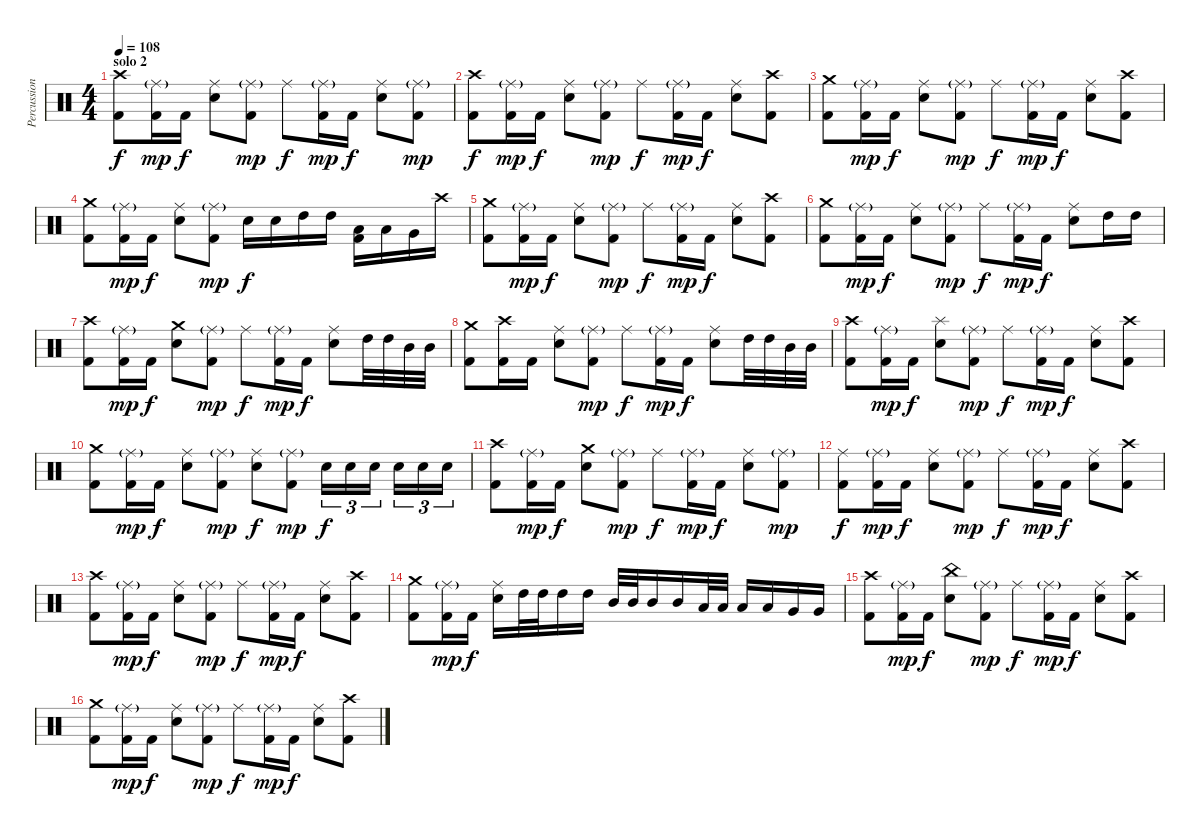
\track ("Percussion" "Percussion") {instrument percussion}
\staff {score}
\articulation defaults
\ts (4 4)
\section ("" "solo 2")
\tempo 108
\clef neutral
\ks c
("Crash high (hit)" "Kick (hit) 2").8{dy f} ("Ride (middle)"{g} "Kick (hit) 2").16{dy mp} "Kick (hit) 2".16{dy f} ("Ride (middle)" "Electric Snare (hit)").8 ("Ride (middle)"{g} "Kick (hit) 2").8{dy mp} "Ride (middle)".8{dy f} ("Ride (middle)"{g} "Kick (hit) 2").16{dy mp} "Kick (hit) 2".16{dy f} ("Ride (middle)" "Electric Snare (hit)").8 ("Ride (middle)"{g} "Kick (hit) 2").8{dy mp} |
("Crash high (hit)" "Kick (hit) 2").8{dy f} ("Ride (middle)"{g} "Kick (hit) 2").16{dy mp} "Kick (hit) 2".16{dy f} ("Ride (middle)" "Electric Snare (hit)").8 ("Ride (middle)"{g} "Kick (hit) 2").8{dy mp} "Ride (middle)".8{dy f} ("Ride (middle)"{g} "Kick (hit) 2").16{dy mp} "Kick (hit) 2".16{dy f} ("Ride (middle)" "Electric Snare (hit)").8 ("Crash high (hit)" "Kick (hit) 2").8 |
("Crash medium (hit)" "Kick (hit) 2").8 ("Ride (middle)"{g} "Kick (hit) 2").16{dy mp} "Kick (hit) 2".16{dy f} ("Ride (middle)" "Electric Snare (hit)").8 ("Ride (middle)"{g} "Kick (hit) 2").8{dy mp} "Ride (middle)".8{dy f} ("Ride (middle)"{g} "Kick (hit) 2").16{dy mp} "Kick (hit) 2".16{dy f} ("Ride (middle)" "Electric Snare (hit)").8 ("Crash high (hit)" "Kick (hit) 2").8 |
("Crash medium (hit)" "Kick (hit) 2").8 ("Ride (middle)"{g} "Kick (hit) 2").16{dy mp} "Kick (hit) 2".16{dy f} ("Ride (middle)" "Electric Snare (hit)").8 ("Ride (middle)"{g} "Kick (hit) 2").8{dy mp} "Electric Snare (hit)".16{dy f} "Electric Snare (hit)".16 "High Tom (hit)".16 "High Tom (hit)".16 ("Low Tom (hit)" "Kick (hit) 2").16 "Low Tom (hit)".16 "Very Low Tom (hit)".16 "Crash high (hit)".16 |
("Crash medium (hit)" "Kick (hit) 2").8 ("Ride (middle)"{g} "Kick (hit) 2").16{dy mp} "Kick (hit) 2".16{dy f} ("Ride (middle)" "Electric Snare (hit)").8 ("Ride (middle)"{g} "Kick (hit) 2").8{dy mp} "Ride (middle)".8{dy f} ("Ride (middle)"{g} "Kick (hit) 2").16{dy mp} "Kick (hit) 2".16{dy f} ("Ride (middle)" "Electric Snare (hit)").8 ("Crash high (hit)" "Kick (hit) 2").8 |
("Crash medium (hit)" "Kick (hit) 2").8 ("Ride (middle)"{g} "Kick (hit) 2").16{dy mp} "Kick (hit) 2".16{dy f} ("Ride (middle)" "Electric Snare (hit)").8 ("Ride (middle)"{g} "Kick (hit) 2").8{dy mp} "Ride (middle)".8{dy f} ("Ride (middle)"{g} "Kick (hit) 2").16{dy mp} "Kick (hit) 2".16{dy f} ("Ride (middle)" "Electric Snare (hit)").8 "High Tom (hit)".16 "High Tom (hit)".16 |
("Crash high (hit)" "Kick (hit) 2").8 ("Ride (middle)"{g} "Kick (hit) 2").16{dy mp} "Kick (hit) 2".16{dy f} ("Crash medium (hit)" "Electric Snare (hit)").8 ("Ride (middle)"{g} "Kick (hit) 2").8{dy mp} "Ride (middle)".8{dy f} ("Ride (middle)"{g} "Kick (hit) 2").16{dy mp} "Kick (hit) 2".16{dy f} ("Ride (middle)" "Electric Snare (hit)").8 "High Tom (hit)".32 "High Tom (hit)".32 "Mid Tom (hit)".32 "Mid Tom (hit)".32 |
("Crash medium (hit)" "Kick (hit) 2").8 ("Crash high (hit)" "Kick (hit) 2").16 "Kick (hit) 2".16 ("Ride (middle)" "Electric Snare (hit)").8 ("Ride (middle)"{g} "Kick (hit) 2").8{dy mp} "Ride (middle)".8{dy f} ("Ride (middle)"{g} "Kick (hit) 2").16{dy mp} "Kick (hit) 2".16{dy f} ("Ride (middle)" "Electric Snare (hit)").8 "High Tom (hit)".32 "High Tom (hit)".32 "Mid Tom (hit)".32 "Mid Tom (hit)".32 |
("Crash high (hit)" "Kick (hit) 2").8 ("Ride (middle)"{g} "Kick (hit) 2").16{dy mp} "Kick (hit) 2".16{dy f} ("Splash (hit)" "Electric Snare (hit)").8 ("Ride (middle)"{g} "Kick (hit) 2").8{dy mp} "Ride (middle)".8{dy f} ("Ride (middle)"{g} "Kick (hit) 2").16{dy mp} "Kick (hit) 2".16{dy f} ("Ride (middle)" "Electric Snare (hit)").8 ("Crash high (hit)" "Kick (hit) 2").8 |
("Crash medium (hit)" "Kick (hit) 2").8 ("Ride (middle)"{g} "Kick (hit) 2").16{dy mp} "Kick (hit) 2".16{dy f} ("Ride (middle)" "Electric Snare (hit)").8 ("Ride (middle)"{g} "Kick (hit) 2").8{dy mp} ("Ride (middle)" "Electric Snare (hit)").8{dy f} ("Ride (middle)"{g} "Kick (hit) 2").8{dy mp} "Electric Snare (hit)".16{tu (3 2) dy f} "Electric Snare (hit)".16{tu (3 2)} "Electric Snare (hit)".16{tu (3 2) beam splitsecondary} "Electric Snare (hit)".16{tu (3 2)} "Electric Snare (hit)".16{tu (3 2)} "Electric Snare (hit)".16{tu (3 2)} |
("Crash high (hit)" "Kick (hit) 2").8 ("Ride (middle)"{g} "Kick (hit) 2").16{dy mp} "Kick (hit) 2".16{dy f} ("Crash medium (hit)" "Electric Snare (hit)").8 ("Ride (middle)"{g} "Kick (hit) 2").8{dy mp} "Ride (middle)".8{dy f} ("Ride (middle)"{g} "Kick (hit) 2").16{dy mp} "Kick (hit) 2".16{dy f} ("Ride (middle)" "Electric Snare (hit)").8 ("Ride (middle)"{g} "Kick (hit) 2").8{dy mp} |
("Ride (middle)" "Kick (hit) 2").8{dy f} ("Ride (middle)"{g} "Kick (hit) 2").16{dy mp} "Kick (hit) 2".16{dy f} ("Ride (middle)" "Electric Snare (hit)").8 ("Ride (middle)"{g} "Kick (hit) 2").8{dy mp} "Ride (middle)".8{dy f} ("Ride (middle)"{g} "Kick (hit) 2").16{dy mp} "Kick (hit) 2".16{dy f} ("Ride (middle)" "Electric Snare (hit)").8 ("Crash high (hit)" "Kick (hit) 2").8 |
("Crash high (hit)" "Kick (hit) 2").8 ("Ride (middle)"{g} "Kick (hit) 2").16{dy mp} "Kick (hit) 2".16{dy f} ("Ride (middle)" "Electric Snare (hit)").8 ("Ride (middle)"{g} "Kick (hit) 2").8{dy mp} "Ride (middle)".8{dy f} ("Ride (middle)"{g} "Kick (hit) 2").16{dy mp} "Kick (hit) 2".16{dy f} ("Ride (middle)" "Electric Snare (hit)").8 ("Crash high (hit)" "Kick (hit) 2").8 |
("Crash medium (hit)" "Kick (hit) 2").8 ("Ride (middle)"{g} "Kick (hit) 2").16{dy mp} "Kick (hit) 2".16{dy f} ("Ride (middle)" "Electric Snare (hit)").16 "High Tom (hit)".32 "High Tom (hit)".32 "High Tom (hit)".16 "High Tom (hit)".16 "Mid Tom (hit)".32 "Mid Tom (hit)".32 "Mid Tom (hit)".16 "Mid Tom (hit)".16 "Low Tom (hit)".32 "Low Tom (hit)".32 "Low Tom (hit)".16 "Low Tom (hit)".16 "Very Low Tom (hit)".16 "Very Low Tom (hit)".16 |
("Crash high (hit)" "Kick (hit) 2").8 ("Ride (middle)"{g} "Kick (hit) 2").16{dy mp} "Kick (hit) 2".16{dy f} ("China (hit)" "Electric Snare (hit)").8 ("Ride (middle)"{g} "Kick (hit) 2").8{dy mp} "Ride (middle)".8{dy f} ("Ride (middle)"{g} "Kick (hit) 2").16{dy mp} "Kick (hit) 2".16{dy f} ("Ride (middle)" "Electric Snare (hit)").8 ("Crash high (hit)" "Kick (hit) 2").8 |
("Crash medium (hit)" "Kick (hit) 2").8 ("Ride (middle)"{g} "Kick (hit) 2").16{dy mp} "Kick (hit) 2".16{dy f} ("Ride (middle)" "Electric Snare (hit)").8 ("Ride (middle)"{g} "Kick (hit) 2").8{dy mp} "Ride (middle)".8{dy f} ("Ride (middle)"{g} "Kick (hit) 2").16{dy mp} "Kick (hit) 2".16{dy f} ("Ride (middle)" "Electric Snare (hit)").8 ("Crash high (hit)" "Kick (hit) 2").8
